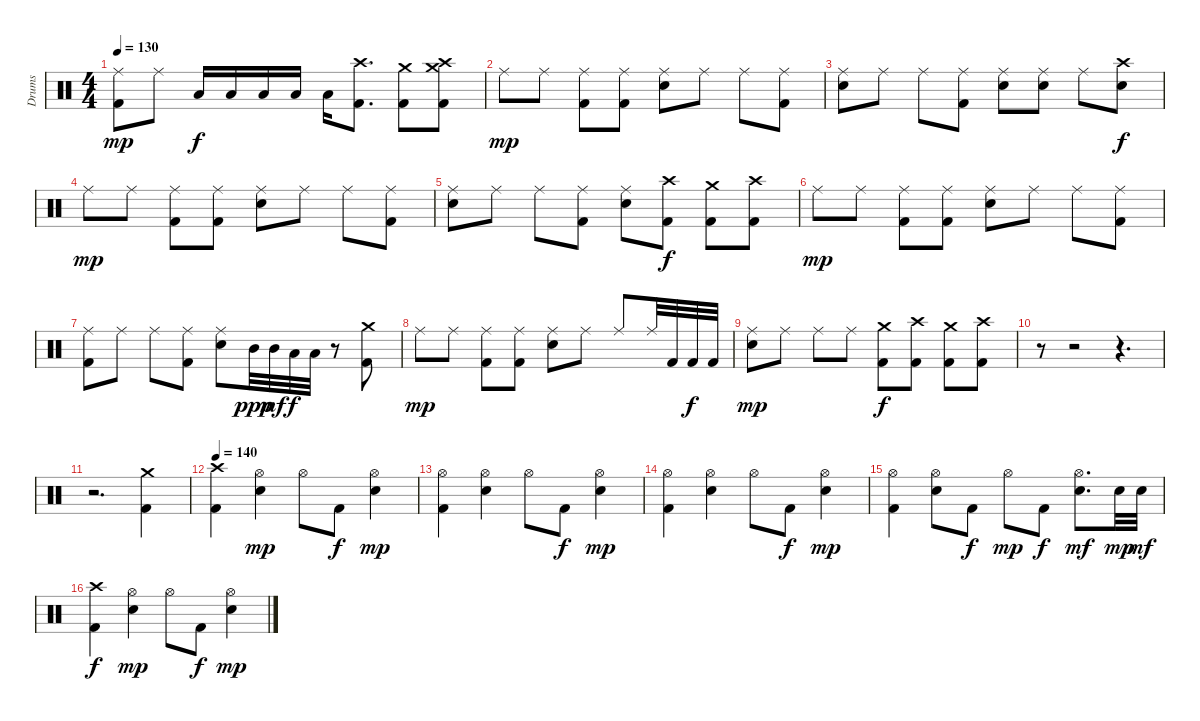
\bracketExtendMode groupsimilarinstruments
\otherSystemsTrackNameOrientation horizontal
\track ("Drumkit" "Drums") {instrument percussion}
\staff {score}
\articulation defaults
\ts (4 4)
\tempo 130
\clef neutral
\ks c
("Ride (middle)" "Kick (hit) 2").8{dy mp beam Down} "Ride (middle)".8{beam Down} "Low Tom (hit)".16{dy f beam Up} "Low Tom (hit)".16{beam Up} "Low Tom (hit)".16{beam Up} "Low Tom (hit)".16{beam Up} "Low Tom (hit)".16{beam Down} ("Crash high (hit)" "Kick (hit) 2").8{d beam Down} ("Crash medium (hit)" "Kick (hit) 2").8{beam Down} ("Crash high (hit)" "Crash medium (hit)" "Kick (hit) 2").8{beam Down} |
"Ride (middle)".8{dy mp beam Down} "Ride (middle)".8{beam Down} ("Ride (middle)" "Kick (hit) 2").8{beam Down} ("Ride (middle)" "Kick (hit) 2").8{beam Down} ("Ride (middle)" "Snare (hit) 2").8{beam Down} "Ride (middle)".8{beam Down} "Ride (middle)".8{beam Down} ("Ride (middle)" "Kick (hit) 2").8{beam Down} |
("Ride (middle)" "Snare (hit) 2").8{beam Down} "Ride (middle)".8{beam Down} "Ride (middle)".8{beam Down} ("Ride (middle)" "Kick (hit) 2").8{beam Down} ("Ride (middle)" "Snare (hit) 2").8{beam Down} ("Ride (middle)" "Snare (hit) 2").8{beam Down} "Ride (middle)".8{beam Down} ("Crash high (hit)" "Snare (hit) 2").8{dy f beam Down} |
"Ride (middle)".8{dy mp beam Down} "Ride (middle)".8{beam Down} ("Ride (middle)" "Kick (hit) 2").8{beam Down} ("Ride (middle)" "Kick (hit) 2").8{beam Down} ("Ride (middle)" "Snare (hit) 2").8{beam Down} "Ride (middle)".8{beam Down} "Ride (middle)".8{beam Down} ("Ride (middle)" "Kick (hit) 2").8{beam Down} |
("Ride (middle)" "Snare (hit) 2").8{beam Down} "Ride (middle)".8{beam Down} "Ride (middle)".8{beam Down} ("Ride (middle)" "Kick (hit) 2").8{beam Down} ("Ride (middle)" "Snare (hit) 2").8{beam Down} ("Crash high (hit)" "Kick (hit) 2").8{dy f beam Down} ("Crash medium (hit)" "Kick (hit) 2").8{beam Down} ("Crash high (hit)" "Kick (hit) 2").8{beam Down} |
"Ride (middle)".8{dy mp beam Down} "Ride (middle)".8{beam Down} ("Ride (middle)" "Kick (hit) 2").8{beam Down} ("Ride (middle)" "Kick (hit) 2").8{beam Down} ("Ride (middle)" "Snare (hit) 2").8{beam Down} "Ride (middle)".8{beam Down} "Ride (middle)".8{beam Down} ("Ride (middle)" "Kick (hit) 2").8{beam Down} |
("Ride (middle)" "Kick (hit) 2").8{beam Down} "Ride (middle)".8{beam Down} "Ride (middle)".8{beam Down} ("Ride (middle)" "Kick (hit) 2").8{beam Down} ("Ride (middle)" "Snare (hit) 2").8{beam Down} "Mid Tom (hit)".32{dy ppp beam Down} "Mid Tom (hit)".32{dy mf beam Down} "Low Tom (hit)".32{dy f beam Down} "Low Tom (hit)".32{beam Down} r.8{beam Down} ("Crash medium (hit)" "Kick (hit) 2").8{beam Down} |
"Ride (middle)".8{dy mp beam Down} "Ride (middle)".8{beam Down} ("Ride (middle)" "Kick (hit) 2").8{beam Down} ("Ride (middle)" "Kick (hit) 2").8{beam Down} ("Ride (middle)" "Snare (hit) 2").8{beam Down} "Ride (middle)".8{beam Down} "Ride (middle)".8{beam Up} "Ride (middle)".32{beam Up} "Kick (hit) 2".32{beam Up} "Kick (hit) 2".32{dy f beam Up} "Kick (hit) 2".32{beam Up} |
("Ride (middle)" "Snare (hit) 2").8{dy mp beam Down} "Ride (middle)".8{beam Down} "Ride (middle)".8{beam Down} "Ride (middle)".8{beam Down} ("Crash medium (hit)" "Kick (hit) 2").8{dy f beam Down} ("Crash high (hit)" "Kick (hit) 2").8{beam Down} ("Crash medium (hit)" "Kick (hit) 2").8{beam Down} ("Crash high (hit)" "Kick (hit) 2").8{beam Down} |
r.8{beam Down} r.2{beam Down} r.4{d beam Down} |
r.2{d beam Down} ("Crash medium (hit)" "Kick (hit) 2").4{beam Down} |
\tempo 140
("Crash high (hit)" "Kick (hit) 2").4{beam Down} ("Hi-Hat (open)" "Snare (hit) 2").4{dy mp beam Down} "Hi-Hat (open)".8{beam Down} "Kick (hit) 2".8{dy f beam Down} ("Hi-Hat (open)" "Snare (hit) 2").4{dy mp beam Down} |
("Hi-Hat (open)" "Kick (hit) 2").4{beam Down} ("Hi-Hat (open)" "Snare (hit) 2").4{beam Down} "Hi-Hat (open)".8{beam Down} "Kick (hit) 2".8{dy f beam Down} ("Hi-Hat (open)" "Snare (hit) 2").4{dy mp beam Down} |
("Hi-Hat (open)" "Kick (hit) 2").4{beam Down} ("Hi-Hat (open)" "Snare (hit) 2").4{beam Down} "Hi-Hat (open)".8{beam Down} "Kick (hit) 2".8{dy f beam Down} ("Hi-Hat (open)" "Snare (hit) 2").4{dy mp beam Down} |
("Hi-Hat (open)" "Kick (hit) 2").4{beam Down} ("Hi-Hat (open)" "Snare (hit) 2").8{beam Down} "Kick (hit) 2".8{dy f beam Down} "Hi-Hat (open)".8{dy mp beam Down} "Kick (hit) 2".8{dy f beam Down} ("Hi-Hat (open)" "Snare (hit) 2").8{d dy mf beam Down} "Snare (hit) 2".32{dy mp beam Down} "Snare (hit) 2".32{dy mf beam Down} |
("Crash high (hit)" "Kick (hit) 2").4{dy f beam Down} ("Hi-Hat (open)" "Snare (hit) 2").4{dy mp beam Down} "Hi-Hat (open)".8{beam Down} "Kick (hit) 2".8{dy f beam Down} ("Hi-Hat (open)" "Snare (hit) 2").4{dy mp beam Down}
